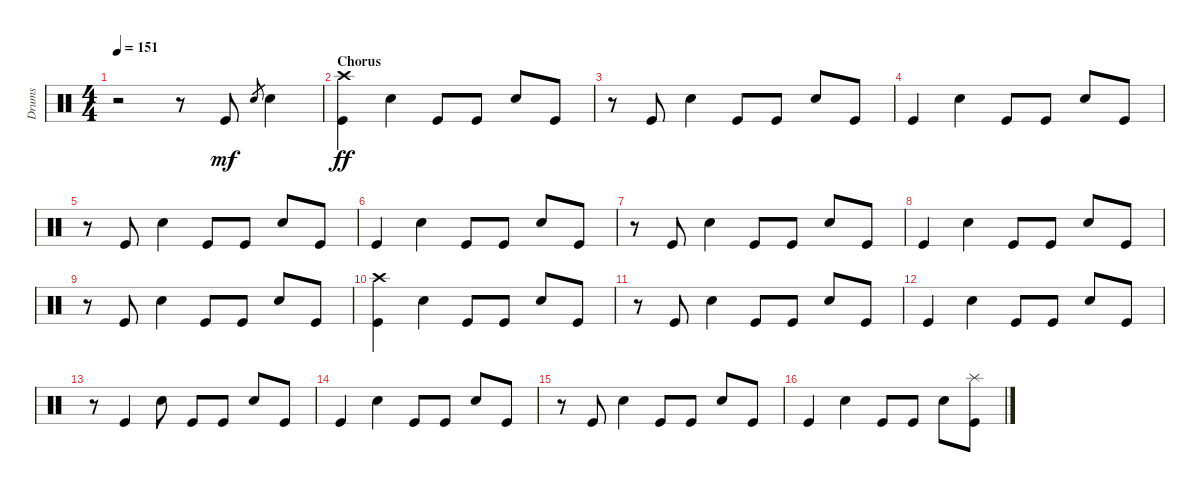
\track ("Drums" "Drums") {instrument percussion}
\staff {score}
\articulation defaults
\ts (4 4)
\tempo 151
\clef neutral
\ks c
r.2{dy ff} r.8 "Kick (hit)".8{dy mf} "Snare (hit) 2".8{gr} "Snare (hit) 2".4 |
\section ("" "Chorus")
("Crash high (hit)" "Kick (hit)").4{dy ff} "Snare (hit) 2".4 "Kick (hit)".8 "Kick (hit)".8 "Snare (hit) 2".8 "Kick (hit)".8 |
r.8 "Kick (hit)".8 "Snare (hit) 2".4 "Kick (hit)".8 "Kick (hit)".8 "Snare (hit) 2".8 "Kick (hit)".8 |
"Kick (hit)".4 "Snare (hit) 2".4 "Kick (hit)".8 "Kick (hit)".8 "Snare (hit) 2".8 "Kick (hit)".8 |
r.8 "Kick (hit)".8 "Snare (hit) 2".4 "Kick (hit)".8 "Kick (hit)".8 "Snare (hit) 2".8 "Kick (hit)".8 |
"Kick (hit)".4 "Snare (hit) 2".4 "Kick (hit)".8 "Kick (hit)".8 "Snare (hit) 2".8 "Kick (hit)".8 |
r.8 "Kick (hit)".8 "Snare (hit) 2".4 "Kick (hit)".8 "Kick (hit)".8 "Snare (hit) 2".8 "Kick (hit)".8 |
"Kick (hit)".4 "Snare (hit) 2".4 "Kick (hit)".8 "Kick (hit)".8 "Snare (hit) 2".8 "Kick (hit)".8 |
r.8 "Kick (hit)".8 "Snare (hit) 2".4 "Kick (hit)".8 "Kick (hit)".8 "Snare (hit) 2".8 "Kick (hit)".8 |
("Crash high (hit)" "Kick (hit)").4 "Snare (hit) 2".4 "Kick (hit)".8 "Kick (hit)".8 "Snare (hit) 2".8 "Kick (hit)".8 |
r.8 "Kick (hit)".8 "Snare (hit) 2".4 "Kick (hit)".8 "Kick (hit)".8 "Snare (hit) 2".8 "Kick (hit)".8 |
"Kick (hit)".4 "Snare (hit) 2".4 "Kick (hit)".8 "Kick (hit)".8 "Snare (hit) 2".8 "Kick (hit)".8 |
r.8 "Kick (hit)".4 "Snare (hit) 2".8 "Kick (hit)".8 "Kick (hit)".8 "Snare (hit) 2".8 "Kick (hit)".8 |
"Kick (hit)".4 "Snare (hit) 2".4 "Kick (hit)".8 "Kick (hit)".8 "Snare (hit) 2".8 "Kick (hit)".8 |
r.8 "Kick (hit)".8 "Snare (hit) 2".4 "Kick (hit)".8 "Kick (hit)".8 "Snare (hit) 2".8 "Kick (hit)".8 |
"Kick (hit)".4 "Snare (hit) 2".4 "Kick (hit)".8 "Kick (hit)".8 "Snare (hit) 2".8 ("Splash (hit)" "Kick (hit)").8
